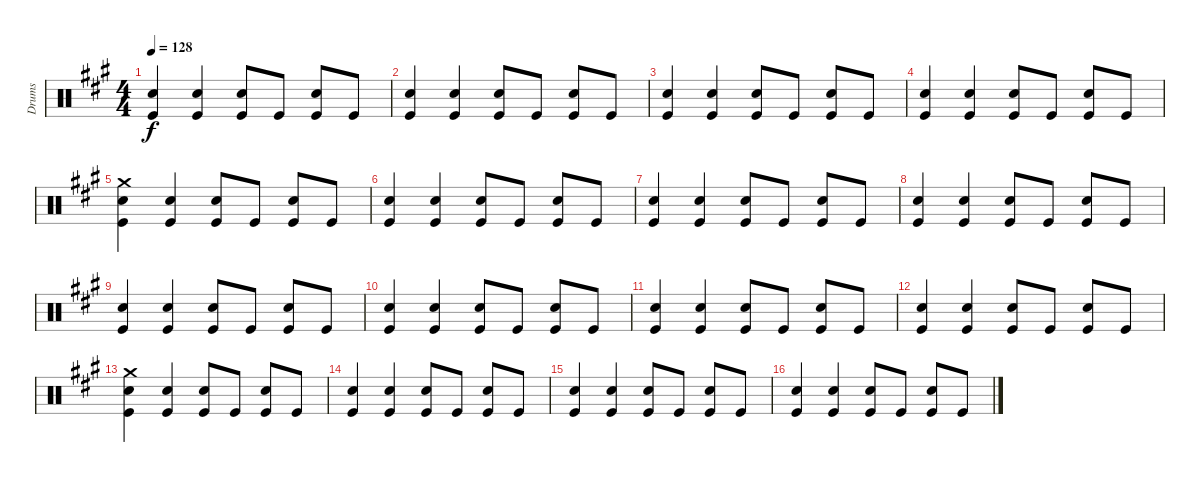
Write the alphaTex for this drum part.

\defaultSystemsLayout 4
\bracketExtendMode groupsimilarinstruments
\otherSystemsTrackNameOrientation horizontal
\track ("Drumkit" "Drums") {instrument percussion}
\staff {score}
\articulation defaults
\ts (4 4)
\tempo 128
\clef neutral
\ks a
("Snare (hit) 2" "Kick (hit)").4{dy f} ("Snare (hit) 2" "Kick (hit)").4 ("Snare (hit) 2" "Kick (hit)").8 "Kick (hit)".8 ("Snare (hit) 2" "Kick (hit)").8 "Kick (hit)".8 |
("Snare (hit) 2" "Kick (hit)").4 ("Snare (hit) 2" "Kick (hit)").4 ("Snare (hit) 2" "Kick (hit)").8 "Kick (hit)".8 ("Snare (hit) 2" "Kick (hit)").8 "Kick (hit)".8 |
("Snare (hit) 2" "Kick (hit)").4 ("Snare (hit) 2" "Kick (hit)").4 ("Snare (hit) 2" "Kick (hit)").8 "Kick (hit)".8 ("Snare (hit) 2" "Kick (hit)").8 "Kick (hit)".8 |
("Snare (hit) 2" "Kick (hit)").4 ("Snare (hit) 2" "Kick (hit)").4 ("Snare (hit) 2" "Kick (hit)").8 "Kick (hit)".8 ("Snare (hit) 2" "Kick (hit)").8 "Kick (hit)".8 |
("Crash medium (hit)" "Snare (hit) 2" "Kick (hit)").4 ("Snare (hit) 2" "Kick (hit)").4 ("Snare (hit) 2" "Kick (hit)").8 "Kick (hit)".8 ("Snare (hit) 2" "Kick (hit)").8 "Kick (hit)".8 |
("Snare (hit) 2" "Kick (hit)").4 ("Snare (hit) 2" "Kick (hit)").4 ("Snare (hit) 2" "Kick (hit)").8 "Kick (hit)".8 ("Snare (hit) 2" "Kick (hit)").8 "Kick (hit)".8 |
("Snare (hit) 2" "Kick (hit)").4 ("Snare (hit) 2" "Kick (hit)").4 ("Snare (hit) 2" "Kick (hit)").8 "Kick (hit)".8 ("Snare (hit) 2" "Kick (hit)").8 "Kick (hit)".8 |
("Snare (hit) 2" "Kick (hit)").4 ("Snare (hit) 2" "Kick (hit)").4 ("Snare (hit) 2" "Kick (hit)").8 "Kick (hit)".8 ("Snare (hit) 2" "Kick (hit)").8 "Kick (hit)".8 |
("Snare (hit) 2" "Kick (hit)").4 ("Snare (hit) 2" "Kick (hit)").4 ("Snare (hit) 2" "Kick (hit)").8 "Kick (hit)".8 ("Snare (hit) 2" "Kick (hit)").8 "Kick (hit)".8 |
("Snare (hit) 2" "Kick (hit)").4 ("Snare (hit) 2" "Kick (hit)").4 ("Snare (hit) 2" "Kick (hit)").8 "Kick (hit)".8 ("Snare (hit) 2" "Kick (hit)").8 "Kick (hit)".8 |
("Snare (hit) 2" "Kick (hit)").4 ("Snare (hit) 2" "Kick (hit)").4 ("Snare (hit) 2" "Kick (hit)").8 "Kick (hit)".8 ("Snare (hit) 2" "Kick (hit)").8 "Kick (hit)".8 |
("Snare (hit) 2" "Kick (hit)").4 ("Snare (hit) 2" "Kick (hit)").4 ("Snare (hit) 2" "Kick (hit)").8 "Kick (hit)".8 ("Snare (hit) 2" "Kick (hit)").8 "Kick (hit)".8 |
("Crash medium (hit)" "Snare (hit) 2" "Kick (hit)").4 ("Snare (hit) 2" "Kick (hit)").4 ("Snare (hit) 2" "Kick (hit)").8 "Kick (hit)".8 ("Snare (hit) 2" "Kick (hit)").8 "Kick (hit)".8 |
("Snare (hit) 2" "Kick (hit)").4 ("Snare (hit) 2" "Kick (hit)").4 ("Snare (hit) 2" "Kick (hit)").8 "Kick (hit)".8 ("Snare (hit) 2" "Kick (hit)").8 "Kick (hit)".8 |
("Snare (hit) 2" "Kick (hit)").4 ("Snare (hit) 2" "Kick (hit)").4 ("Snare (hit) 2" "Kick (hit)").8 "Kick (hit)".8 ("Snare (hit) 2" "Kick (hit)").8 "Kick (hit)".8 |
("Snare (hit) 2" "Kick (hit)").4 ("Snare (hit) 2" "Kick (hit)").4 ("Snare (hit) 2" "Kick (hit)").8 "Kick (hit)".8 ("Snare (hit) 2" "Kick (hit)").8 "Kick (hit)".8
